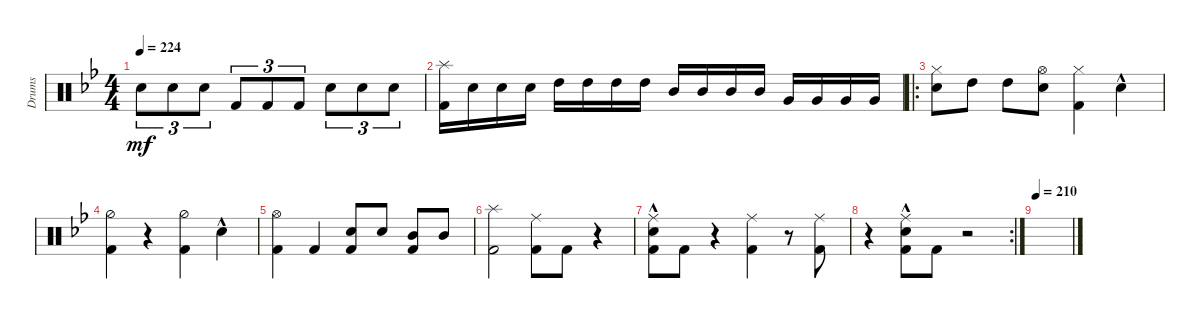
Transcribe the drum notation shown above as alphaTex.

\defaultSystemsLayout 4
\bracketExtendMode groupsimilarinstruments
\otherSystemsTrackNameOrientation horizontal
\track ("Drumkit" "Drums") {instrument percussion}
\staff {score}
\articulation defaults
\ts (4 4)
\tempo 224
\clef neutral
\ks bb "Snare (hit) 2"{acc forcenatural}.8{tu (3 2) dy mf beam Down} "Snare (hit) 2"{acc forcenatural}.8{tu (3 2) beam Down} "Snare (hit) 2"{acc forcenatural}.8{tu (3 2) beam Down} "Kick (hit) 2"{acc forcenatural}.8{tu (3 2) beam Up} "Kick (hit) 2"{acc forcenatural}.8{tu (3 2) beam Up} "Kick (hit) 2"{acc forcenatural}.8{tu (3 2) beam Up} "Snare (hit) 2"{acc forcenatural}.8{tu (3 2) beam Down} "Snare (hit) 2"{acc forcenatural}.8{tu (3 2) beam Down} "Snare (hit) 2"{acc forcenatural}.8{tu (3 2) beam Down}
|
("Splash (hit)"{acc forcenatural} "Kick (hit) 2"{acc forcenatural}).16{beam Down} "Snare (hit) 2"{acc forcenatural}.16{beam Down} "Snare (hit) 2"{acc forcenatural}.16{beam Down} "Snare (hit) 2"{acc forcenatural}.16{beam Down} "High Tom (hit)"{acc forcenatural}.16{beam Down} "High Tom (hit)"{acc forcenatural}.16{beam Down} "High Tom (hit)"{acc forcenatural}.16{beam Down} "High Tom (hit)"{acc forcenatural}.16{beam Down} "Mid Tom (hit)"{acc forcenatural}.16{beam Up} "Mid Tom (hit)"{acc forcenatural}.16{beam Up} "Mid Tom (hit)"{acc forcenatural}.16{beam Up} "Mid Tom (hit)"{acc forcenatural}.16{beam Up} "Very Low Tom (hit)"{acc forcenatural}.16{beam Up} "Very Low Tom (hit)"{acc forcenatural}.16{beam Up} "Very Low Tom (hit)"{acc forcenatural}.16{beam Up} "Very Low Tom (hit)"{acc forcenatural}.16{beam Up} |
\ro
\scale
0.377778 ("Snare (hit) 2"{acc forcenatural} "Hi-Hat (closed)"{acc forcenatural}).8{beam Down} "High Tom (hit)"{acc forcenatural}.8{beam Down} "High Tom (hit)"{acc forcenatural}.8{beam Down} ("Snare (hit) 2"{acc forcenatural} "Hi-Hat (open)"{acc forcenatural}).8{beam Down} ("Kick (hit) 2"{acc forcenatural} "Hi-Hat (closed)"{acc forcenatural}).4{beam Down} "Snare (hit) 2"{hac acc forcenatural}.4{beam Down} |
\scale
0.333333 ("Kick (hit) 2"{acc forcenatural} "Hi-Hat (half)"{acc forcenatural}).4{beam Down} r.4{beam Down} ("Kick (hit) 2"{acc forcenatural} "Hi-Hat (half)"{acc forcenatural}).4{beam Down} "Snare (hit) 2"{hac acc forcenatural}.4{beam Down} |
\scale
0.333333 ("Kick (hit) 2"{acc forcenatural} "Hi-Hat (open)"{acc forcenatural}).4{beam Down} "Kick (hit) 2"{acc forcenatural}.4{beam Up} ("Snare (hit) 2"{acc forcenatural} "Kick (hit) 2"{acc forcenatural}).8{beam Up} "Snare (hit) 2"{acc forcenatural}.8{beam Up} ("Mid Tom (hit)"{acc forcenatural} "Kick (hit) 2"{acc forcenatural}).8{beam Up} "Mid Tom (hit)"{acc forcenatural}.8{beam Up} |
\scale
0.333333 ("Kick (hit) 2"{acc forcenatural} "Splash (hit)"{acc forcenatural}).2{beam Down} ("Kick (hit) 2"{acc forcenatural} "Ride (middle)"{acc forcenatural}).8{beam Down} "Kick (hit) 2"{acc forcenatural}.8{beam Down} r.4{beam Down} |
\scale
0.321839 ("Kick (hit) 2"{acc forcenatural} "Ride (middle)"{acc forcenatural} "Snare (hit) 2"{hac acc forcenatural}).8{beam Down} "Kick (hit) 2"{acc forcenatural}.8{beam Down} r.4{beam Down} ("Kick (hit) 2"{acc forcenatural} "Ride (middle)"{acc forcenatural}).4{beam Down} r.8{beam Down} ("Kick (hit) 2"{acc forcenatural} "Ride (middle)"{acc forcenatural}).8{beam Down} |
\rc 2
\scale
0.356322 r.4{beam Down} ("Kick (hit) 2"{acc forcenatural} "Ride (middle)"{acc forcenatural} "Snare (hit) 2"{hac acc forcenatural}).8{beam Down} "Kick (hit) 2"{acc forcenatural}.8{beam Down} r.2{beam Down} |
\tempo 210
\scale
0.321839 |
\scale
0.333333 |
\scale
0.333333 |
\scale
0.333333 |
\scale
0.333333 |
\scale
0.333333 |
\scale
0.333333 |
\scale
0.333333
